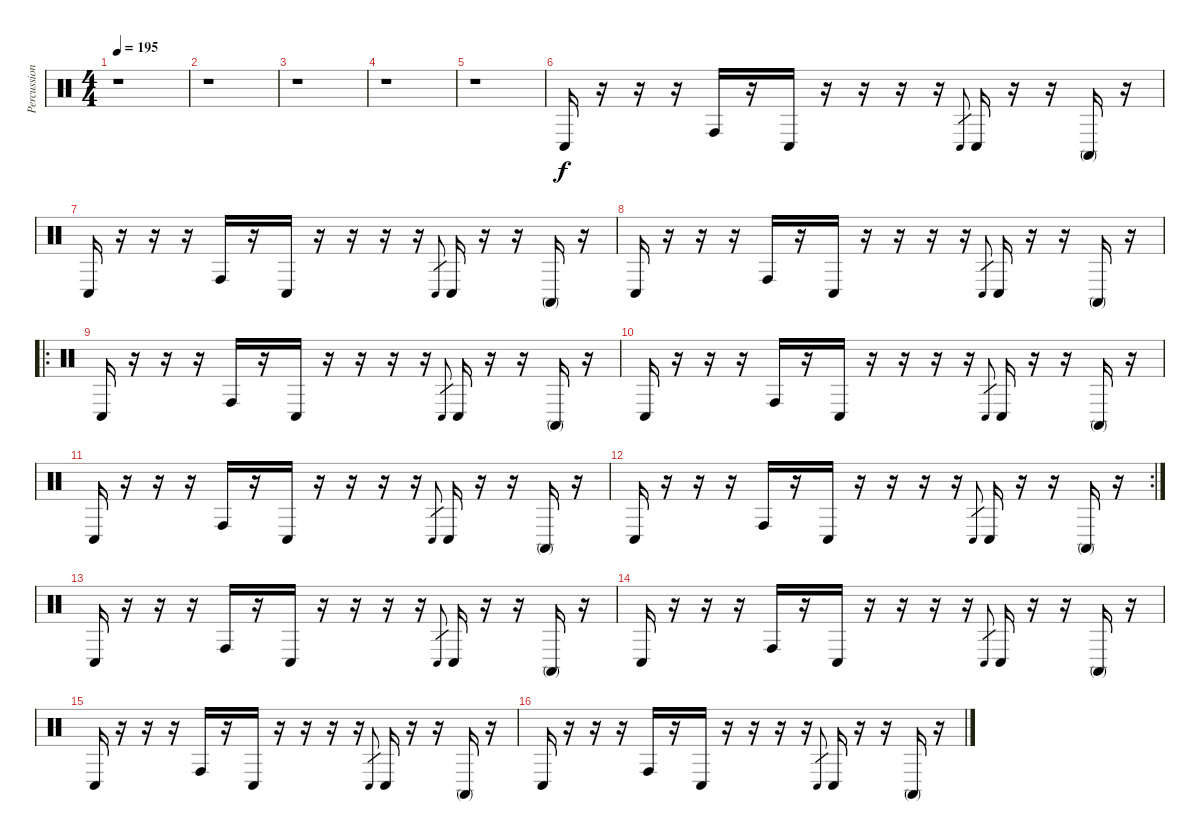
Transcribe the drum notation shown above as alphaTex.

\track ("Percussion" "Percussion") {instrument percussion}
\staff {score}
\articulation defaults
\ts (4 4)
\tempo 195
\clef neutral
\ks c
r.1{dy f} |
r.1 |
r.1 |
r.1 |
r.1 |
"Conga low (hit)".16 r.16 r.16 r.16 "Conga high (hit)".16 r.16 "Conga low (hit)".16 r.16 r.16 r.16 r.16 "Conga low (hit)".8{gr} "Conga low (hit)".16 r.16 r.16 "Conga high (mute)".16 r.16 |
"Conga low (hit)".16 r.16 r.16 r.16 "Conga high (hit)".16 r.16 "Conga low (hit)".16 r.16 r.16 r.16 r.16 "Conga low (hit)".8{gr} "Conga low (hit)".16 r.16 r.16 "Conga high (mute)".16 r.16 |
"Conga low (hit)".16 r.16 r.16 r.16 "Conga high (hit)".16 r.16 "Conga low (hit)".16 r.16 r.16 r.16 r.16 "Conga low (hit)".8{gr} "Conga low (hit)".16 r.16 r.16 "Conga high (mute)".16 r.16 |
\ro "Conga low (hit)".16
r.16 r.16 r.16 "Conga high (hit)".16 r.16 "Conga low (hit)".16 r.16 r.16 r.16 r.16 "Conga low (hit)".8{gr} "Conga low (hit)".16 r.16 r.16 "Conga high (mute)".16 r.16 |
"Conga low (hit)".16 r.16 r.16 r.16 "Conga high (hit)".16 r.16 "Conga low (hit)".16 r.16 r.16 r.16 r.16 "Conga low (hit)".8{gr} "Conga low (hit)".16 r.16 r.16 "Conga high (mute)".16 r.16 |
"Conga low (hit)".16 r.16 r.16 r.16 "Conga high (hit)".16 r.16 "Conga low (hit)".16 r.16 r.16 r.16 r.16 "Conga low (hit)".8{gr} "Conga low (hit)".16 r.16 r.16 "Conga high (mute)".16 r.16 |
\rc 2 "Conga low (hit)".16
r.16 r.16 r.16 "Conga high (hit)".16 r.16 "Conga low (hit)".16 r.16 r.16 r.16 r.16 "Conga low (hit)".8{gr} "Conga low (hit)".16 r.16 r.16 "Conga high (mute)".16 r.16 |
"Conga low (hit)".16 r.16 r.16 r.16 "Conga high (hit)".16 r.16 "Conga low (hit)".16 r.16 r.16 r.16 r.16 "Conga low (hit)".8{gr} "Conga low (hit)".16 r.16 r.16 "Conga high (mute)".16 r.16 |
"Conga low (hit)".16 r.16 r.16 r.16 "Conga high (hit)".16 r.16 "Conga low (hit)".16 r.16 r.16 r.16 r.16 "Conga low (hit)".8{gr} "Conga low (hit)".16 r.16 r.16 "Conga high (mute)".16 r.16 |
"Conga low (hit)".16 r.16 r.16 r.16 "Conga high (hit)".16 r.16 "Conga low (hit)".16 r.16 r.16 r.16 r.16 "Conga low (hit)".8{gr} "Conga low (hit)".16 r.16 r.16 "Conga high (mute)".16 r.16 |
"Conga low (hit)".16 r.16 r.16 r.16 "Conga high (hit)".16 r.16 "Conga low (hit)".16 r.16 r.16 r.16 r.16 "Conga low (hit)".8{gr} "Conga low (hit)".16 r.16 r.16 "Conga high (mute)".16 r.16
